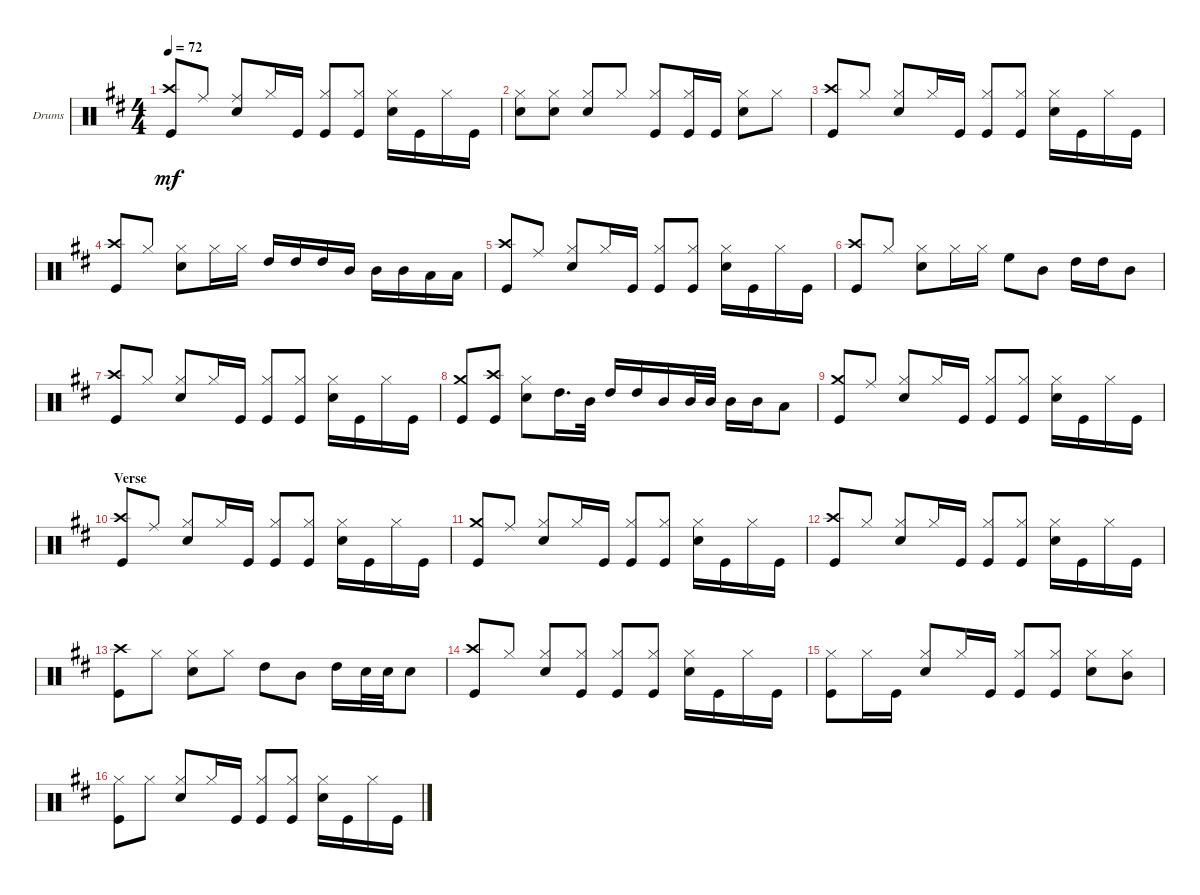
\defaultSystemsLayout 4
\bracketExtendMode groupsimilarinstruments
\firstSystemTrackNameOrientation horizontal
\otherSystemsTrackNameOrientation horizontal
\track ("PETER CRISS" "Drums") {instrument percussion}
\staff {score}
\articulation defaults
\ts (4 4)
\tempo 72
\clef neutral
\scale
0.514894
\ks d
("Crash high (hit)" "Kick (hit)").8{dy mf beam invert} "Ride (middle)".8 ("Ride (middle)" "Snare (hit) 2").8 "Hi-Hat (closed)".16 "Kick (hit)".16 ("Kick (hit)" "Hi-Hat (closed)").8{beam invert} ("Hi-Hat (closed)" "Kick (hit)").8 ("Snare (hit) 2" "Hi-Hat (closed)").16 "Kick (hit)".16 "Hi-Hat (closed)".16 "Kick (hit)".16 |
\scale
0.242553 ("Snare (hit) 2" "Hi-Hat (closed)").8 ("Hi-Hat (closed)" "Snare (hit) 2").8 ("Snare (hit) 2" "Hi-Hat (closed)").8 "Hi-Hat (closed)".8 ("Hi-Hat (closed)" "Kick (hit)").8{beam invert} ("Kick (hit)" "Hi-Hat (closed)").16 "Kick (hit)".16 ("Snare (hit) 2" "Hi-Hat (closed)").8 "Hi-Hat (closed)".8 |
\scale
0.242553 ("Crash high (hit)" "Kick (hit)").8{beam invert} "Hi-Hat (closed)".8 ("Hi-Hat (closed)" "Snare (hit) 2").8 "Hi-Hat (closed)".16 "Kick (hit)".16 ("Kick (hit)" "Hi-Hat (closed)").8{beam invert} ("Hi-Hat (closed)" "Kick (hit)").8 ("Snare (hit) 2" "Hi-Hat (closed)").16 "Kick (hit)".16 "Hi-Hat (closed)".16 "Kick (hit)".16 |
\scale
0.333333 ("Crash high (hit)" "Kick (hit)").8{beam invert} "Hi-Hat (closed)".8 ("Snare (hit) 2" "Hi-Hat (closed)").8 "Hi-Hat (closed)".16 "Hi-Hat (closed)".16 "High Tom (hit)".16 "High Tom (hit)".16 "High Tom (hit)".16 "Mid Tom (hit)".16 "Mid Tom (hit)".16{beam invert} "Mid Tom (hit)".16 "Low Tom (hit)".16 "Low Tom (hit)".16 |
\scale
0.333333 ("Crash high (hit)" "Kick (hit)").8{beam invert} "Ride (middle)".8 ("Snare (hit) 2" "Hi-Hat (closed)").8 "Hi-Hat (closed)".16 "Kick (hit)".16 ("Kick (hit)" "Hi-Hat (closed)").8{beam invert} ("Hi-Hat (closed)" "Kick (hit)").8 ("Snare (hit) 2" "Hi-Hat (closed)").16 "Kick (hit)".16 "Hi-Hat (closed)".16 "Kick (hit)".16 |
\scale
0.333333 ("Kick (hit)" "Crash high (hit)").8{beam invert} "Hi-Hat (closed)".8 ("Snare (hit) 2" "Hi-Hat (closed)").8 "Hi-Hat (closed)".16 "Hi-Hat (closed)".16 "High Floor Tom (hit)".8 "Mid Tom (hit)".8 "High Tom (hit)".16 "High Tom (hit)".16 "Mid Tom (hit)".8 |
\scale
0.333333 ("Crash high (hit)" "Kick (hit)").8{beam invert} "Hi-Hat (closed)".8 ("Snare (hit) 2" "Hi-Hat (closed)").8 "Hi-Hat (closed)".16 "Kick (hit)".16 ("Kick (hit)" "Hi-Hat (closed)").8{beam invert} ("Hi-Hat (closed)" "Kick (hit)").8 ("Snare (hit) 2" "Hi-Hat (closed)").16 "Kick (hit)".16 "Hi-Hat (closed)".16 "Kick (hit)".16 |
\scale
0.333333 ("Crash medium (hit)" "Kick (hit)").8{beam invert} ("Kick (hit)" "Crash high (hit)").8 ("Snare (hit) 2" "Hi-Hat (closed)").8 "High Tom (hit)".16{d} "Mid Tom (hit)".32 "High Tom (hit)".16 "High Tom (hit)".16 "Mid Tom (hit)".16 "Mid Tom (hit)".32 "Mid Tom (hit)".32 "Mid Tom (hit)".16{beam invert} "Mid Tom (hit)".16 "Low Tom (hit)".8 |
\scale
0.333333 ("Kick (hit)" "Crash medium (hit)").8{beam invert} "Ride (middle)".8 ("Snare (hit) 2" "Hi-Hat (closed)").8 "Hi-Hat (closed)".16 "Kick (hit)".16 ("Kick (hit)" "Hi-Hat (closed)").8{beam invert} ("Hi-Hat (closed)" "Kick (hit)").8 ("Snare (hit) 2" "Hi-Hat (closed)").16 "Kick (hit)".16 "Hi-Hat (closed)".16 "Kick (hit)".16 |
\section ("" "Verse")
\scale
0.333333 ("Kick (hit)" "Crash high (hit)").8{beam invert} "Ride (middle)".8 ("Snare (hit) 2" "Hi-Hat (closed)").8 "Hi-Hat (closed)".16 "Kick (hit)".16 ("Kick (hit)" "Hi-Hat (closed)").8{beam invert} ("Hi-Hat (closed)" "Kick (hit)").8 ("Snare (hit) 2" "Hi-Hat (closed)").16 "Kick (hit)".16 "Hi-Hat (closed)".16 "Kick (hit)".16 |
\scale
0.333333 ("Kick (hit)" "Crash medium (hit)").8{beam invert} "Ride (middle)".8 ("Snare (hit) 2" "Hi-Hat (closed)").8 "Hi-Hat (closed)".16 "Kick (hit)".16 ("Kick (hit)" "Hi-Hat (closed)").8{beam invert} ("Hi-Hat (closed)" "Kick (hit)").8 ("Snare (hit) 2" "Hi-Hat (closed)").16 "Kick (hit)".16 "Hi-Hat (closed)".16 "Kick (hit)".16 |
\scale
0.333333 ("Crash high (hit)" "Kick (hit)").8{beam invert} "Hi-Hat (closed)".8 ("Snare (hit) 2" "Hi-Hat (closed)").8 "Hi-Hat (closed)".16 "Kick (hit)".16 ("Kick (hit)" "Hi-Hat (closed)").8{beam invert} ("Kick (hit)" "Hi-Hat (closed)").8 ("Snare (hit) 2" "Hi-Hat (closed)").16 "Kick (hit)".16 "Hi-Hat (closed)".16 "Kick (hit)".16 |
\scale
0.333333 ("Crash high (hit)" "Kick (hit)").8 "Hi-Hat (closed)".8 ("Snare (hit) 2" "Hi-Hat (closed)").8 "Hi-Hat (closed)".8 "High Tom (hit)".8 "Mid Tom (hit)".8 "High Tom (hit)".16 "Snare (hit) 2".32 "Snare (hit) 2".32 "Snare (hit) 2".8 |
\scale
0.333333 ("Crash high (hit)" "Kick (hit)").8{beam invert} "Hi-Hat (closed)".8 ("Hi-Hat (closed)" "Snare (hit) 2").8{beam invert} ("Kick (hit)" "Hi-Hat (closed)").8 ("Kick (hit)" "Hi-Hat (closed)").8{beam invert} ("Hi-Hat (closed)" "Kick (hit)").8 ("Snare (hit) 2" "Hi-Hat (closed)").16 "Kick (hit)".16 "Hi-Hat (closed)".16 "Kick (hit)".16 |
\scale
0.333333 ("Hi-Hat (closed)" "Kick (hit)").8 "Hi-Hat (closed)".16 "Kick (hit)".16 ("Snare (hit) 2" "Hi-Hat (closed)").8 "Hi-Hat (closed)".16 "Kick (hit)".16 ("Kick (hit)" "Hi-Hat (closed)").8{beam invert} ("Hi-Hat (closed)" "Kick (hit)").8 ("Hi-Hat (closed)" "Snare (hit) 2").8 ("Mid Tom (hit)" "Hi-Hat (closed)").8 |
\scale
0.333333 ("Kick (hit)" "Hi-Hat (closed)").8 "Hi-Hat (closed)".8 ("Snare (hit) 2" "Hi-Hat (closed)").8 "Hi-Hat (closed)".16 "Kick (hit)".16 ("Kick (hit)" "Hi-Hat (closed)").8{beam invert} ("Hi-Hat (closed)" "Kick (hit)").8 ("Snare (hit) 2" "Hi-Hat (closed)").16 "Kick (hit)".16 "Hi-Hat (closed)".16 "Kick (hit)".16
